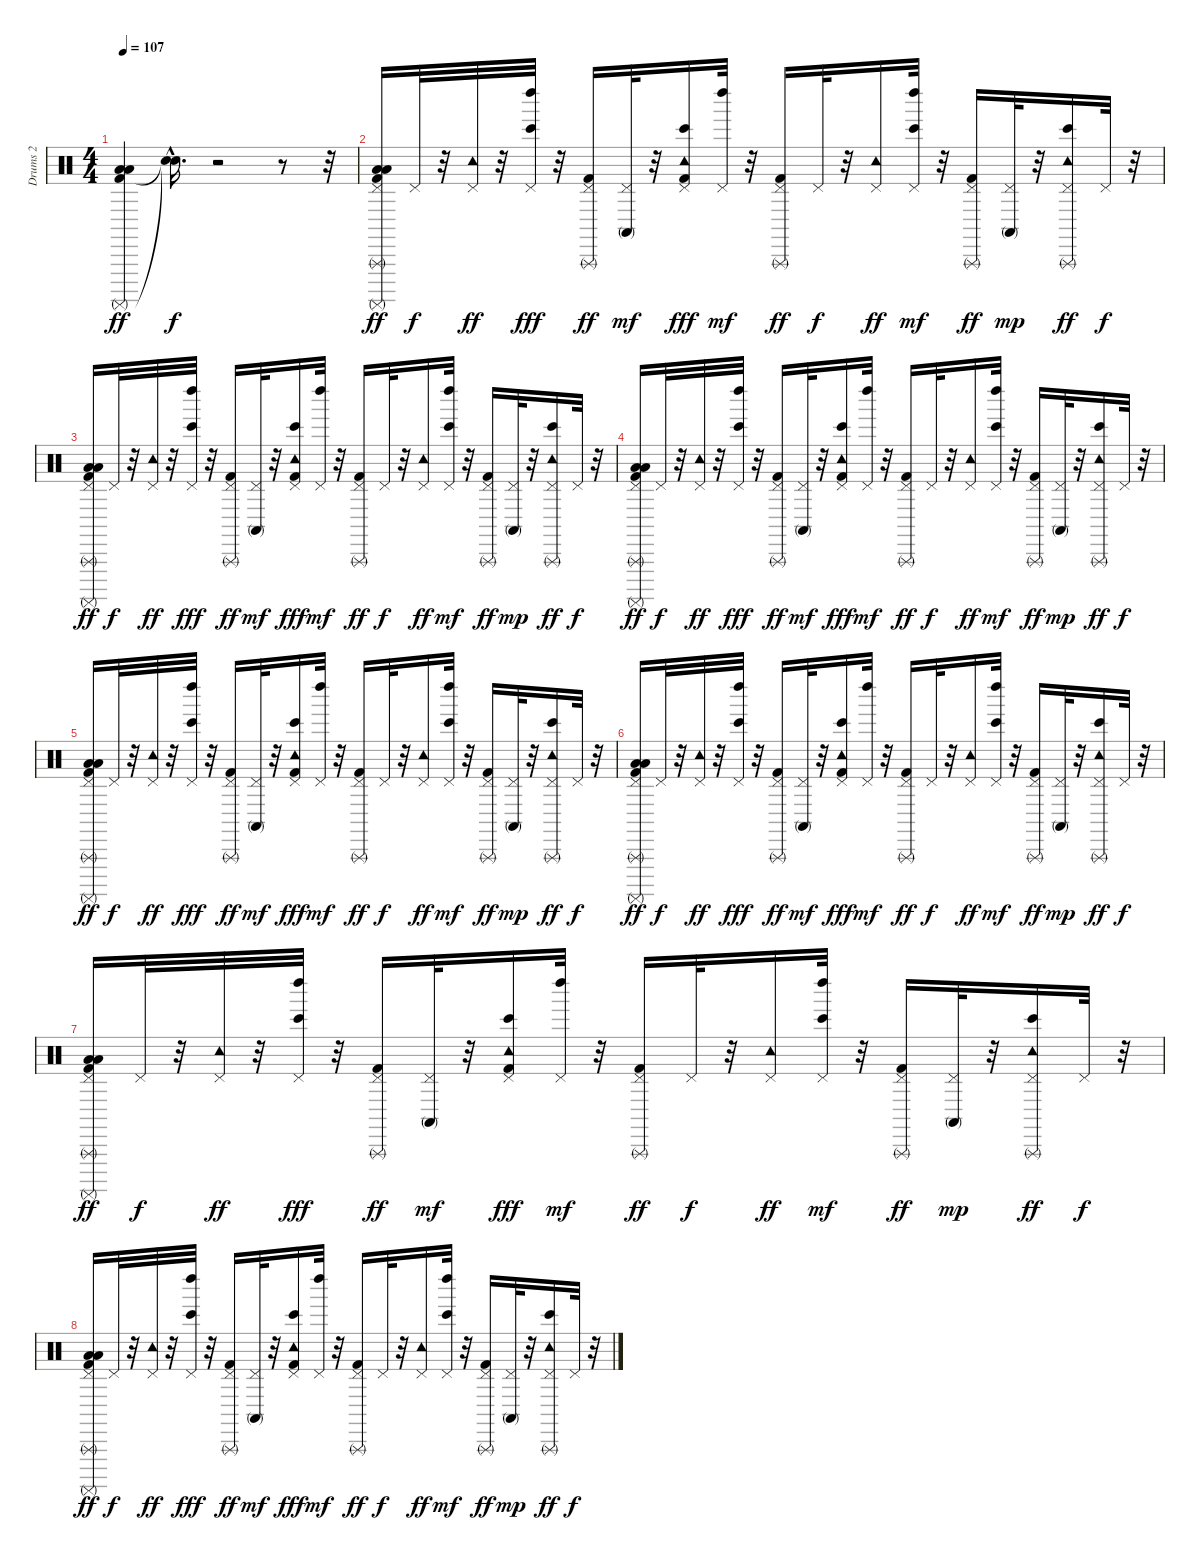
\track ("Drums 2" "Drums 2") {instrument percussion}
\staff {score}
\articulation defaults
\ts (4 4)
\tempo 107
\clef neutral
\ks c
("Kick (hit) 2" "Surdo (mute)" "Low Tom (hit)" "Low Floor Tom (hit)").4{dy ff} ("Snare (hit)"{hac t} "Snare (hit)"{hac t}).16{d dy f} r.2 r.8 r.32 |
("Kick (hit) 2" "Pedal Hi-Hat (hit)" "Low Tom (hit)" "Low Floor Tom (hit)" "Surdo (mute)" "Triangle (rnute)").16{dy ff} "Pedal Hi-Hat (hit)".32{dy f} r.32 ("Tambourine (hit)" "Pedal Hi-Hat (hit)").32{dy ff} r.32 ("Pedal Hi-Hat (hit)" "Bongo High (hit)" "Left Maraca (hit)").32{dy fff} r.32 ("Kick (hit) 2" "Pedal Hi-Hat (hit)" "Triangle (rnute)").16{dy ff} ("Pedal Hi-Hat (hit)" "Conga high (mute)").32{dy mf} r.32 ("Kick (hit) 2" "Tambourine (hit)" "Pedal Hi-Hat (hit)" "Bongo High (hit)").16{dy fff} ("Pedal Hi-Hat (hit)" "Left Maraca (hit)").32{dy mf} r.32 ("Kick (hit) 2" "Pedal Hi-Hat (hit)" "Triangle (rnute)").16{dy ff} "Pedal Hi-Hat (hit)".32{dy f} r.32 ("Tambourine (hit)" "Pedal Hi-Hat (hit)").16{dy ff} ("Pedal Hi-Hat (hit)" "Bongo High (hit)" "Left Maraca (hit)").32{dy mf} r.32 ("Kick (hit) 2" "Pedal Hi-Hat (hit)" "Triangle (rnute)").16{dy ff} ("Pedal Hi-Hat (hit)" "Conga high (mute)").32{dy mp} r.32 ("Tambourine (hit)" "Pedal Hi-Hat (hit)" "Bongo High (hit)" "Triangle (rnute)").16{dy ff} "Pedal Hi-Hat (hit)".32{dy f} r.32 |
("Kick (hit) 2" "Pedal Hi-Hat (hit)" "Low Tom (hit)" "Low Floor Tom (hit)" "Surdo (mute)" "Triangle (rnute)").16{dy ff} "Pedal Hi-Hat (hit)".32{dy f} r.32 ("Tambourine (hit)" "Pedal Hi-Hat (hit)").32{dy ff} r.32 ("Pedal Hi-Hat (hit)" "Bongo High (hit)" "Left Maraca (hit)").32{dy fff} r.32 ("Kick (hit) 2" "Pedal Hi-Hat (hit)" "Triangle (rnute)").16{dy ff} ("Pedal Hi-Hat (hit)" "Conga high (mute)").32{dy mf} r.32 ("Kick (hit) 2" "Tambourine (hit)" "Pedal Hi-Hat (hit)" "Bongo High (hit)").16{dy fff} ("Pedal Hi-Hat (hit)" "Left Maraca (hit)").32{dy mf} r.32 ("Kick (hit) 2" "Pedal Hi-Hat (hit)" "Triangle (rnute)").16{dy ff} "Pedal Hi-Hat (hit)".32{dy f} r.32 ("Tambourine (hit)" "Pedal Hi-Hat (hit)").16{dy ff} ("Pedal Hi-Hat (hit)" "Bongo High (hit)" "Left Maraca (hit)").32{dy mf} r.32 ("Kick (hit) 2" "Pedal Hi-Hat (hit)" "Triangle (rnute)").16{dy ff} ("Pedal Hi-Hat (hit)" "Conga high (mute)").32{dy mp} r.32 ("Tambourine (hit)" "Pedal Hi-Hat (hit)" "Bongo High (hit)" "Triangle (rnute)").16{dy ff} "Pedal Hi-Hat (hit)".32{dy f} r.32 |
("Kick (hit) 2" "Pedal Hi-Hat (hit)" "Low Tom (hit)" "Low Floor Tom (hit)" "Surdo (mute)" "Triangle (rnute)").16{dy ff} "Pedal Hi-Hat (hit)".32{dy f} r.32 ("Tambourine (hit)" "Pedal Hi-Hat (hit)").32{dy ff} r.32 ("Pedal Hi-Hat (hit)" "Bongo High (hit)" "Left Maraca (hit)").32{dy fff} r.32 ("Kick (hit) 2" "Pedal Hi-Hat (hit)" "Triangle (rnute)").16{dy ff} ("Pedal Hi-Hat (hit)" "Conga high (mute)").32{dy mf} r.32 ("Kick (hit) 2" "Tambourine (hit)" "Pedal Hi-Hat (hit)" "Bongo High (hit)").16{dy fff} ("Pedal Hi-Hat (hit)" "Left Maraca (hit)").32{dy mf} r.32 ("Kick (hit) 2" "Pedal Hi-Hat (hit)" "Triangle (rnute)").16{dy ff} "Pedal Hi-Hat (hit)".32{dy f} r.32 ("Tambourine (hit)" "Pedal Hi-Hat (hit)").16{dy ff} ("Pedal Hi-Hat (hit)" "Bongo High (hit)" "Left Maraca (hit)").32{dy mf} r.32 ("Kick (hit) 2" "Pedal Hi-Hat (hit)" "Triangle (rnute)").16{dy ff} ("Pedal Hi-Hat (hit)" "Conga high (mute)").32{dy mp} r.32 ("Tambourine (hit)" "Pedal Hi-Hat (hit)" "Bongo High (hit)" "Triangle (rnute)").16{dy ff} "Pedal Hi-Hat (hit)".32{dy f} r.32 |
("Kick (hit) 2" "Pedal Hi-Hat (hit)" "Low Tom (hit)" "Low Floor Tom (hit)" "Surdo (mute)" "Triangle (rnute)").16{dy ff} "Pedal Hi-Hat (hit)".32{dy f} r.32 ("Tambourine (hit)" "Pedal Hi-Hat (hit)").32{dy ff} r.32 ("Pedal Hi-Hat (hit)" "Bongo High (hit)" "Left Maraca (hit)").32{dy fff} r.32 ("Kick (hit) 2" "Pedal Hi-Hat (hit)" "Triangle (rnute)").16{dy ff} ("Pedal Hi-Hat (hit)" "Conga high (mute)").32{dy mf} r.32 ("Kick (hit) 2" "Tambourine (hit)" "Pedal Hi-Hat (hit)" "Bongo High (hit)").16{dy fff} ("Pedal Hi-Hat (hit)" "Left Maraca (hit)").32{dy mf} r.32 ("Kick (hit) 2" "Pedal Hi-Hat (hit)" "Triangle (rnute)").16{dy ff} "Pedal Hi-Hat (hit)".32{dy f} r.32 ("Tambourine (hit)" "Pedal Hi-Hat (hit)").16{dy ff} ("Pedal Hi-Hat (hit)" "Bongo High (hit)" "Left Maraca (hit)").32{dy mf} r.32 ("Kick (hit) 2" "Pedal Hi-Hat (hit)" "Triangle (rnute)").16{dy ff} ("Pedal Hi-Hat (hit)" "Conga high (mute)").32{dy mp} r.32 ("Tambourine (hit)" "Pedal Hi-Hat (hit)" "Bongo High (hit)" "Triangle (rnute)").16{dy ff} "Pedal Hi-Hat (hit)".32{dy f} r.32 |
("Kick (hit) 2" "Pedal Hi-Hat (hit)" "Low Tom (hit)" "Low Floor Tom (hit)" "Surdo (mute)" "Triangle (rnute)").16{dy ff} "Pedal Hi-Hat (hit)".32{dy f} r.32 ("Tambourine (hit)" "Pedal Hi-Hat (hit)").32{dy ff} r.32 ("Pedal Hi-Hat (hit)" "Bongo High (hit)" "Left Maraca (hit)").32{dy fff} r.32 ("Kick (hit) 2" "Pedal Hi-Hat (hit)" "Triangle (rnute)").16{dy ff} ("Pedal Hi-Hat (hit)" "Conga high (mute)").32{dy mf} r.32 ("Kick (hit) 2" "Tambourine (hit)" "Pedal Hi-Hat (hit)" "Bongo High (hit)").16{dy fff} ("Pedal Hi-Hat (hit)" "Left Maraca (hit)").32{dy mf} r.32 ("Kick (hit) 2" "Pedal Hi-Hat (hit)" "Triangle (rnute)").16{dy ff} "Pedal Hi-Hat (hit)".32{dy f} r.32 ("Tambourine (hit)" "Pedal Hi-Hat (hit)").16{dy ff} ("Pedal Hi-Hat (hit)" "Bongo High (hit)" "Left Maraca (hit)").32{dy mf} r.32 ("Kick (hit) 2" "Pedal Hi-Hat (hit)" "Triangle (rnute)").16{dy ff} ("Pedal Hi-Hat (hit)" "Conga high (mute)").32{dy mp} r.32 ("Tambourine (hit)" "Pedal Hi-Hat (hit)" "Bongo High (hit)" "Triangle (rnute)").16{dy ff} "Pedal Hi-Hat (hit)".32{dy f} r.32 |
("Kick (hit) 2" "Pedal Hi-Hat (hit)" "Low Tom (hit)" "Low Floor Tom (hit)" "Surdo (mute)" "Triangle (rnute)").16{dy ff} "Pedal Hi-Hat (hit)".32{dy f} r.32 ("Tambourine (hit)" "Pedal Hi-Hat (hit)").32{dy ff} r.32 ("Pedal Hi-Hat (hit)" "Bongo High (hit)" "Left Maraca (hit)").32{dy fff} r.32 ("Kick (hit) 2" "Pedal Hi-Hat (hit)" "Triangle (rnute)").16{dy ff} ("Pedal Hi-Hat (hit)" "Conga high (mute)").32{dy mf} r.32 ("Kick (hit) 2" "Tambourine (hit)" "Pedal Hi-Hat (hit)" "Bongo High (hit)").16{dy fff} ("Pedal Hi-Hat (hit)" "Left Maraca (hit)").32{dy mf} r.32 ("Kick (hit) 2" "Pedal Hi-Hat (hit)" "Triangle (rnute)").16{dy ff} "Pedal Hi-Hat (hit)".32{dy f} r.32 ("Tambourine (hit)" "Pedal Hi-Hat (hit)").16{dy ff} ("Pedal Hi-Hat (hit)" "Bongo High (hit)" "Left Maraca (hit)").32{dy mf} r.32 ("Kick (hit) 2" "Pedal Hi-Hat (hit)" "Triangle (rnute)").16{dy ff} ("Pedal Hi-Hat (hit)" "Conga high (mute)").32{dy mp} r.32 ("Tambourine (hit)" "Pedal Hi-Hat (hit)" "Bongo High (hit)" "Triangle (rnute)").16{dy ff} "Pedal Hi-Hat (hit)".32{dy f} r.32 |
("Kick (hit) 2" "Pedal Hi-Hat (hit)" "Low Tom (hit)" "Low Floor Tom (hit)" "Surdo (mute)" "Triangle (rnute)").16{dy ff} "Pedal Hi-Hat (hit)".32{dy f} r.32 ("Tambourine (hit)" "Pedal Hi-Hat (hit)").32{dy ff} r.32 ("Pedal Hi-Hat (hit)" "Bongo High (hit)" "Left Maraca (hit)").32{dy fff} r.32 ("Kick (hit) 2" "Pedal Hi-Hat (hit)" "Triangle (rnute)").16{dy ff} ("Pedal Hi-Hat (hit)" "Conga high (mute)").32{dy mf} r.32 ("Kick (hit) 2" "Tambourine (hit)" "Pedal Hi-Hat (hit)" "Bongo High (hit)").16{dy fff} ("Pedal Hi-Hat (hit)" "Left Maraca (hit)").32{dy mf} r.32 ("Kick (hit) 2" "Pedal Hi-Hat (hit)" "Triangle (rnute)").16{dy ff} "Pedal Hi-Hat (hit)".32{dy f} r.32 ("Tambourine (hit)" "Pedal Hi-Hat (hit)").16{dy ff} ("Pedal Hi-Hat (hit)" "Bongo High (hit)" "Left Maraca (hit)").32{dy mf} r.32 ("Kick (hit) 2" "Pedal Hi-Hat (hit)" "Triangle (rnute)").16{dy ff} ("Pedal Hi-Hat (hit)" "Conga high (mute)").32{dy mp} r.32 ("Tambourine (hit)" "Pedal Hi-Hat (hit)" "Bongo High (hit)" "Triangle (rnute)").16{dy ff} "Pedal Hi-Hat (hit)".32{dy f} r.32
